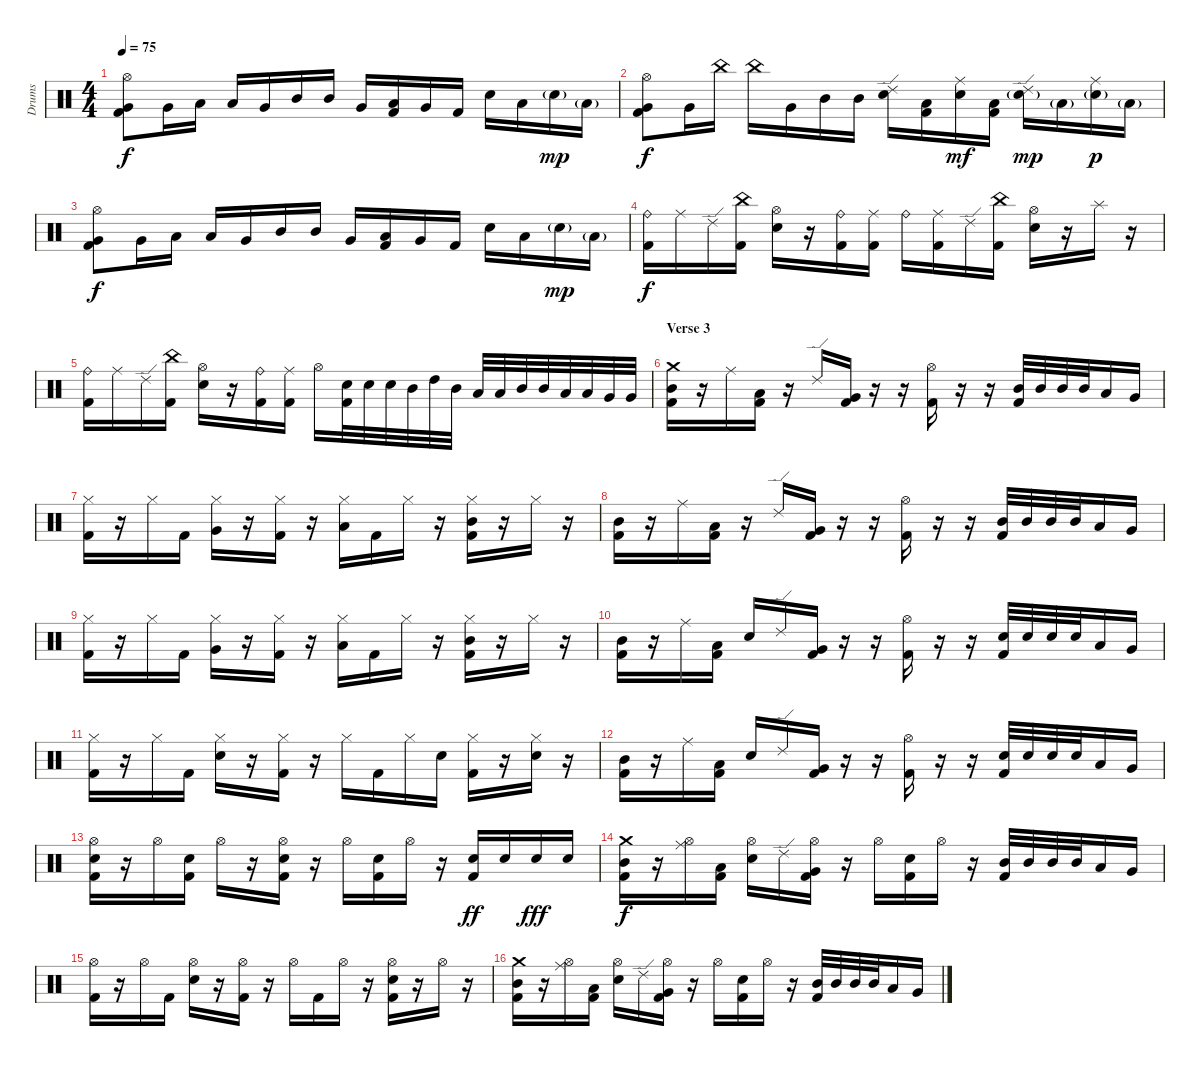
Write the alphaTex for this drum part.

\track ("Drums" "Drums") {instrument percussion}
\staff {score}
\articulation defaults
\ts (4 4)
\tempo 75
\clef neutral
\ks c
("Hi-Hat (open)" "Very Low Tom (hit)" "Kick (hit) 2").8{dy f} "Very Low Tom (hit)".16 "Low Tom (hit)".16 "Low Tom (hit)".16 "Very Low Tom (hit)".16 "Mid Tom (hit)".16 "Mid Tom (hit)".16 "Very Low Tom (hit)".16 ("Low Tom (hit)" "Kick (hit) 2").16 "Very Low Tom (hit)".16 "Kick (hit) 2".16 "Snare (hit) 2".16 "Low Tom (hit)".16 "Snare (hit) 2"{g}.16{dy mp} "Low Tom (hit)"{g}.16 |
("Hi-Hat (open)" "Very Low Tom (hit)" "Kick (hit) 2").8{dy f} "Very Low Tom (hit)".16 "China (hit)".16 "China (hit)".16 "Very Low Tom (hit)".16 "Mid Tom (hit)".16 "Mid Tom (hit)".16 ("Ride (edge) 2" "Snare (hit) 2").16 ("Low Tom (hit)" "Kick (hit) 2").16 ("Ride (middle)" "Snare (hit) 2").16{dy mf} ("Low Tom (hit)" "Kick (hit) 2").16 ("Ride (edge) 2" "Snare (hit) 2"{g}).16{dy mp} "Low Tom (hit)"{g}.16 ("Ride (middle)" "Snare (hit) 2"{g}).16{dy p} "Low Tom (hit)"{g}.16 |
("Hi-Hat (open)" "Very Low Tom (hit)" "Kick (hit) 2").8{dy f} "Very Low Tom (hit)".16 "Low Tom (hit)".16 "Low Tom (hit)".16 "Very Low Tom (hit)".16 "Mid Tom (hit)".16 "Mid Tom (hit)".16 "Very Low Tom (hit)".16 ("Low Tom (hit)" "Kick (hit) 2").16 "Very Low Tom (hit)".16 "Kick (hit) 2".16 "Snare (hit) 2".16 "Low Tom (hit)".16 "Snare (hit) 2"{g}.16{dy mp} "Low Tom (hit)"{g}.16 |
("Ride (bell)" "Kick (hit) 2").16{dy f} "Ride (middle)".16 "Ride (edge) 2".16 ("China (hit)" "Kick (hit) 2").16 ("Hi-Hat (open)" "Snare (hit) 2").16 r.16 ("Ride (bell)" "Kick (hit) 2").16 ("Ride (middle)" "Kick (hit) 2").16 "Ride (bell)".16 ("Ride (middle)" "Kick (hit) 2").16 "Ride (edge) 2".16 ("China (hit)" "Kick (hit) 2").16 ("Hi-Hat (open)" "Snare (hit) 2").16 r.16 "Splash (hit)".16 r.16 |
("Ride (bell)" "Kick (hit) 2").16 "Ride (middle)".16 "Ride (edge) 2".16 ("China (hit)" "Kick (hit) 2").16 ("Hi-Hat (open)" "Snare (hit) 2").16 r.16 ("Ride (bell)" "Kick (hit) 2").16 ("Ride (middle)" "Kick (hit) 2").16 "Hi-Hat (open)".16 ("Snare (hit) 2" "Kick (hit) 2").32 "Snare (hit) 2".32 "Snare (hit) 2".32 "Mid Tom (hit)".32 "High Tom (hit)".32 "Mid Tom (hit)".32 "Low Tom (hit)".32 "Low Tom (hit)".32 "Mid Tom (hit)".32 "Mid Tom (hit)".32 "Low Tom (hit)".32 "Low Tom (hit)".32 "Very Low Tom (hit)".32 "Very Low Tom (hit)".32 |
\section ("" "Verse 3")
("Crash medium (hit)" "Mid Tom (hit)" "Kick (hit) 2").16 r.16 "Ride (middle)".16 ("Low Tom (hit)" "Kick (hit) 2").16 r.16 "Ride (edge) 2".16 ("Very Low Tom (hit)" "Kick (hit) 2").16 r.16 r.16 ("Hi-Hat (open)" "Kick (hit) 2").16 r.16 r.16 ("Mid Tom (hit)" "Kick (hit) 2").32 "Mid Tom (hit)".32 "Mid Tom (hit)".32 "Mid Tom (hit)".32 "Low Tom (hit)".16 "Very Low Tom (hit)".16 |
("Hi-Hat (closed)" "Kick (hit) 2").16 r.16 "Hi-Hat (closed)".16 "Kick (hit) 2".16 ("Hi-Hat (closed)" "Very Low Tom (hit)").16 r.16 ("Hi-Hat (closed)" "Kick (hit) 2").16 r.16 ("Hi-Hat (closed)" "Low Tom (hit)").16 "Kick (hit) 2".16 "Hi-Hat (closed)".16 r.16 ("Mid Tom (hit)" "Hi-Hat (closed)" "Kick (hit) 2").16 r.16 "Hi-Hat (closed)".16 r.16 |
("Mid Tom (hit)" "Kick (hit) 2").16 r.16 "Ride (middle)".16 ("Low Tom (hit)" "Kick (hit) 2").16 r.16 "Ride (edge) 2".16 ("Very Low Tom (hit)" "Kick (hit) 2").16 r.16 r.16 ("Hi-Hat (open)" "Kick (hit) 2").16 r.16 r.16 ("Mid Tom (hit)" "Kick (hit) 2").32 "Mid Tom (hit)".32 "Mid Tom (hit)".32 "Mid Tom (hit)".32 "Low Tom (hit)".16 "Very Low Tom (hit)".16 |
("Hi-Hat (closed)" "Kick (hit) 2").16 r.16 "Hi-Hat (closed)".16 "Kick (hit) 2".16 ("Hi-Hat (closed)" "Very Low Tom (hit)").16 r.16 ("Hi-Hat (closed)" "Kick (hit) 2").16 r.16 ("Hi-Hat (closed)" "Low Tom (hit)").16 "Kick (hit) 2".16 "Hi-Hat (closed)".16 r.16 ("Mid Tom (hit)" "Hi-Hat (closed)" "Kick (hit) 2").16 r.16 "Hi-Hat (closed)".16 r.16 |
("Mid Tom (hit)" "Kick (hit) 2").16 r.16 "Ride (middle)".16 ("Low Tom (hit)" "Kick (hit) 2").16 "Snare (hit) 2".16 "Ride (edge) 2".16 ("Very Low Tom (hit)" "Kick (hit) 2").16 r.16 r.16 ("Hi-Hat (open)" "Kick (hit) 2").16 r.16 r.16 ("Snare (hit) 2" "Kick (hit) 2").32 "Snare (hit) 2".32 "Snare (hit) 2".32 "Snare (hit) 2".32 "Low Tom (hit)".16 "Very Low Tom (hit)".16 |
("Hi-Hat (closed)" "Kick (hit) 2").16 r.16 "Hi-Hat (closed)".16 "Kick (hit) 2".16 ("Hi-Hat (closed)" "Snare (hit) 2").16 r.16 ("Hi-Hat (closed)" "Kick (hit) 2").16 r.16 "Hi-Hat (closed)".16 "Kick (hit) 2".16 "Hi-Hat (closed)".16 "Snare (hit) 2".16 ("Hi-Hat (closed)" "Kick (hit) 2").16 r.16 ("Hi-Hat (closed)" "Snare (hit) 2").16 r.16 |
("Mid Tom (hit)" "Kick (hit) 2").16 r.16 "Ride (middle)".16 ("Low Tom (hit)" "Kick (hit) 2").16 "Snare (hit) 2".16 "Ride (edge) 2".16 ("Very Low Tom (hit)" "Kick (hit) 2").16 r.16 r.16 ("Hi-Hat (open)" "Kick (hit) 2").16 r.16 r.16 ("Snare (hit) 2" "Kick (hit) 2").32 "Snare (hit) 2".32 "Snare (hit) 2".32 "Snare (hit) 2".32 "Low Tom (hit)".16 "Very Low Tom (hit)".16 |
("Hi-Hat (open)" "Snare (hit) 2" "Kick (hit) 2").16 r.16 "Hi-Hat (open)".16 ("Snare (hit) 2" "Kick (hit) 2").16 "Hi-Hat (open)".16 r.16 ("Hi-Hat (open)" "Snare (hit) 2" "Kick (hit) 2").16 r.16 "Hi-Hat (open)".16 ("Snare (hit) 2" "Kick (hit) 2").16 "Hi-Hat (open)".16 r.16 ("Snare (hit) 2" "Kick (hit) 2").16{dy ff} "Snare (hit) 2".16 "Snare (hit) 2".16{dy fff} "Snare (hit) 2".16 |
("Crash medium (hit)" "Mid Tom (hit)" "Kick (hit) 2").16{dy f} r.16 ("Ride (middle)" "Hi-Hat (open)").16 ("Low Tom (hit)" "Kick (hit) 2").16 ("Hi-Hat (open)" "Snare (hit) 2").16 "Ride (edge) 2".16 ("Hi-Hat (open)" "Very Low Tom (hit)" "Kick (hit) 2").16 r.16 "Hi-Hat (open)".16 ("Snare (hit) 2" "Kick (hit) 2").16 "Hi-Hat (open)".16 r.16 ("Mid Tom (hit)" "Kick (hit) 2").32 "Mid Tom (hit)".32 "Mid Tom (hit)".32 "Mid Tom (hit)".32 "Low Tom (hit)".16 "Very Low Tom (hit)".16 |
("Hi-Hat (open)" "Kick (hit) 2").16 r.16 "Hi-Hat (open)".16 "Kick (hit) 2".16 ("Hi-Hat (open)" "Snare (hit) 2").16 r.16 ("Hi-Hat (open)" "Kick (hit) 2").16 r.16 "Hi-Hat (open)".16 "Kick (hit) 2".16 "Hi-Hat (open)".16 r.16 ("Hi-Hat (open)" "Snare (hit) 2" "Kick (hit) 2").16 r.16 "Hi-Hat (open)".16 r.16 |
("Crash medium (hit)" "Mid Tom (hit)" "Kick (hit) 2").16 r.16 ("Ride (middle)" "Hi-Hat (open)").16 ("Low Tom (hit)" "Kick (hit) 2").16 ("Hi-Hat (open)" "Snare (hit) 2").16 "Ride (edge) 2".16 ("Hi-Hat (open)" "Very Low Tom (hit)" "Kick (hit) 2").16 r.16 "Hi-Hat (open)".16 ("Snare (hit) 2" "Kick (hit) 2").16 "Hi-Hat (open)".16 r.16 ("Mid Tom (hit)" "Kick (hit) 2").32 "Mid Tom (hit)".32 "Mid Tom (hit)".32 "Mid Tom (hit)".32 "Low Tom (hit)".16 "Very Low Tom (hit)".16
